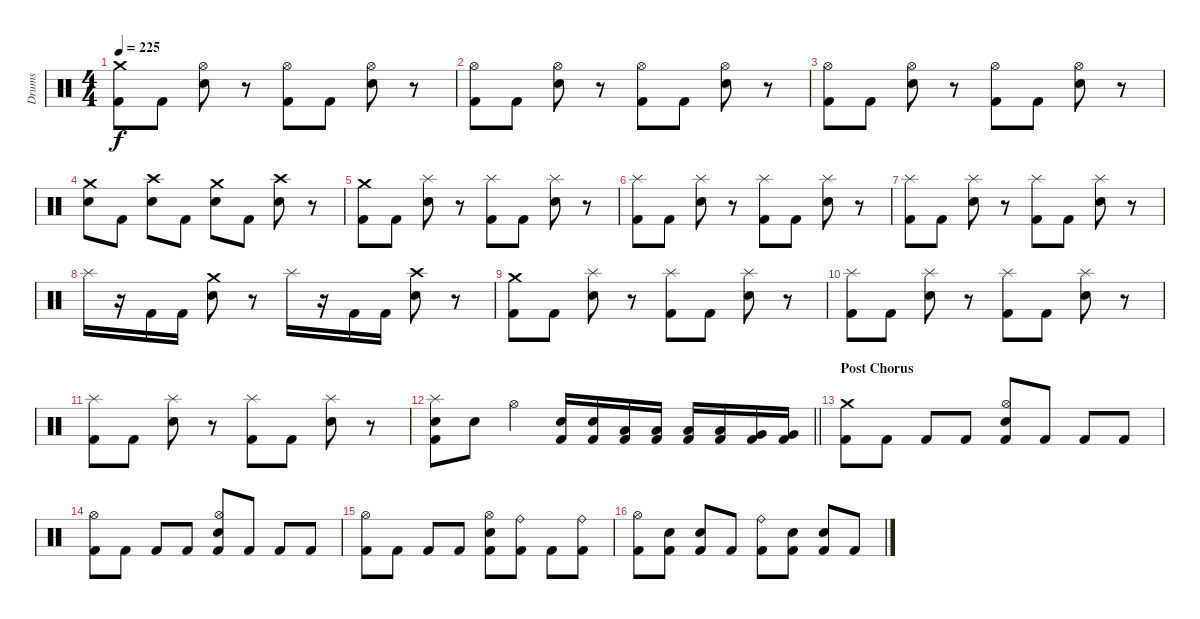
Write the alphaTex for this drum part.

\track ("Drums" "Drums") {instrument percussion}
\staff {score}
\articulation defaults
\ts (4 4)
\tempo 225
\clef neutral
\ks c
("Crash medium (hit)" "Kick (hit) 2").8{dy f} "Kick (hit) 2".8 ("Hi-Hat (open)" "Electric Snare (hit)").8 r.8 ("Hi-Hat (open)" "Kick (hit) 2").8 "Kick (hit) 2".8 ("Hi-Hat (open)" "Electric Snare (hit)").8 r.8 |
("Hi-Hat (open)" "Kick (hit) 2").8 "Kick (hit) 2".8 ("Hi-Hat (open)" "Electric Snare (hit)").8 r.8 ("Hi-Hat (open)" "Kick (hit) 2").8 "Kick (hit) 2".8 ("Hi-Hat (open)" "Electric Snare (hit)").8 r.8 |
("Hi-Hat (open)" "Kick (hit) 2").8 "Kick (hit) 2".8 ("Hi-Hat (open)" "Electric Snare (hit)").8 r.8 ("Hi-Hat (open)" "Kick (hit) 2").8 "Kick (hit) 2".8 ("Hi-Hat (open)" "Electric Snare (hit)").8 r.8 |
("Crash medium (hit)" "Electric Snare (hit)").8 "Kick (hit) 2".8 ("Crash high (hit)" "Electric Snare (hit)").8 "Kick (hit) 2".8 ("Crash medium (hit)" "Electric Snare (hit)").8 "Kick (hit) 2".8 ("Crash high (hit)" "Electric Snare (hit)").8 r.8 |
("Crash medium (hit)" "Kick (hit) 2").8 "Kick (hit) 2".8 ("Splash (hit)" "Electric Snare (hit)").8 r.8 ("Splash (hit)" "Kick (hit) 2").8 "Kick (hit) 2".8 ("Splash (hit)" "Electric Snare (hit)").8 r.8 |
("Splash (hit)" "Kick (hit) 2").8 "Kick (hit) 2".8 ("Splash (hit)" "Electric Snare (hit)").8 r.8 ("Splash (hit)" "Kick (hit) 2").8 "Kick (hit) 2".8 ("Splash (hit)" "Electric Snare (hit)").8 r.8 |
("Splash (hit)" "Kick (hit) 2").8 "Kick (hit) 2".8 ("Splash (hit)" "Electric Snare (hit)").8 r.8 ("Splash (hit)" "Kick (hit) 2").8 "Kick (hit) 2".8 ("Splash (hit)" "Electric Snare (hit)").8 r.8 |
"Splash (hit)".16 r.16 "Kick (hit) 2".16 "Kick (hit) 2".16 ("Crash medium (hit)" "Electric Snare (hit)").8 r.8 "Splash (hit)".16 r.16 "Kick (hit) 2".16 "Kick (hit) 2".16 ("Crash high (hit)" "Electric Snare (hit)").8 r.8 |
("Crash medium (hit)" "Kick (hit) 2").8 "Kick (hit) 2".8 ("Splash (hit)" "Electric Snare (hit)").8 r.8 ("Splash (hit)" "Kick (hit) 2").8 "Kick (hit) 2".8 ("Splash (hit)" "Electric Snare (hit)").8 r.8 |
("Splash (hit)" "Kick (hit) 2").8 "Kick (hit) 2".8 ("Splash (hit)" "Electric Snare (hit)").8 r.8 ("Splash (hit)" "Kick (hit) 2").8 "Kick (hit) 2".8 ("Splash (hit)" "Electric Snare (hit)").8 r.8 |
("Splash (hit)" "Kick (hit) 2").8 "Kick (hit) 2".8 ("Splash (hit)" "Electric Snare (hit)").8 r.8 ("Splash (hit)" "Kick (hit) 2").8 "Kick (hit) 2".8 ("Splash (hit)" "Electric Snare (hit)").8 r.8 |
\barLineRight lightlight
("Splash (hit)" "Electric Snare (hit)" "Kick (hit) 2").8 "Electric Snare (hit)".8 "Hi-Hat (open)".4 ("Electric Snare (hit)" "Kick (hit) 2").16 ("Electric Snare (hit)" "Kick (hit) 2").16 ("Low Tom (hit)" "Kick (hit) 2").16 ("Low Tom (hit)" "Kick (hit) 2").16 ("Low Tom (hit)" "Kick (hit) 2").16 ("Low Tom (hit)" "Kick (hit) 2").16 ("Very Low Tom (hit)" "Kick (hit) 2").16 ("Very Low Tom (hit)" "Kick (hit) 2").16 |
\section ("" "Post Chorus")
("Crash medium (hit)" "Kick (hit) 2").8 "Kick (hit) 2".8 "Kick (hit) 2".8 "Kick (hit) 2".8 ("Hi-Hat (open)" "Electric Snare (hit)" "Kick (hit) 2").8 "Kick (hit) 2".8 "Kick (hit) 2".8 "Kick (hit) 2".8 |
("Hi-Hat (open)" "Kick (hit) 2").8 "Kick (hit) 2".8 "Kick (hit) 2".8 "Kick (hit) 2".8 ("Hi-Hat (open)" "Electric Snare (hit)" "Kick (hit) 2").8 "Kick (hit) 2".8 "Kick (hit) 2".8 "Kick (hit) 2".8 |
("Hi-Hat (open)" "Kick (hit) 2").8 "Kick (hit) 2".8 "Kick (hit) 2".8 "Kick (hit) 2".8 ("Hi-Hat (open)" "Electric Snare (hit)" "Kick (hit) 2").8 ("Ride (bell)" "Kick (hit) 2").8 "Kick (hit) 2".8 ("Ride (bell)" "Kick (hit) 2").8 |
("Hi-Hat (open)" "Kick (hit) 2").8 ("Electric Snare (hit)" "Kick (hit) 2").8 ("Electric Snare (hit)" "Kick (hit) 2").8 "Kick (hit) 2".8 ("Ride (bell)" "Kick (hit) 2").8 ("Electric Snare (hit)" "Kick (hit) 2").8 ("Electric Snare (hit)" "Kick (hit) 2").8 "Kick (hit) 2".8
